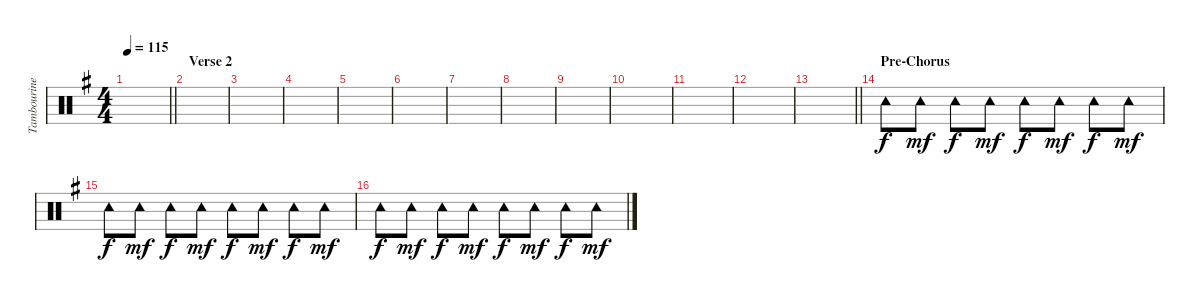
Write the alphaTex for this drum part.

\track ("Tambourine" "Tambourine") {instrument percussion}
\staff {score}
\articulation defaults
\ts (4 4)
\tempo 115
\clef neutral
\barLineRight lightlight
\ks g
|
\section ("" "Verse 2")
|
|
|
|
|
|
|
|
|
|
|
\barLineRight lightlight
|
\section ("" "Pre-Chorus")
"Tambourine (hit)".8 "Tambourine (hit)".8{dy mf} "Tambourine (hit)".8{dy f} "Tambourine (hit)".8{dy mf} "Tambourine (hit)".8{dy f} "Tambourine (hit)".8{dy mf} "Tambourine (hit)".8{dy f} "Tambourine (hit)".8{dy mf} |
"Tambourine (hit)".8{dy f} "Tambourine (hit)".8{dy mf} "Tambourine (hit)".8{dy f} "Tambourine (hit)".8{dy mf} "Tambourine (hit)".8{dy f} "Tambourine (hit)".8{dy mf} "Tambourine (hit)".8{dy f} "Tambourine (hit)".8{dy mf} |
"Tambourine (hit)".8{dy f} "Tambourine (hit)".8{dy mf} "Tambourine (hit)".8{dy f} "Tambourine (hit)".8{dy mf} "Tambourine (hit)".8{dy f} "Tambourine (hit)".8{dy mf} "Tambourine (hit)".8{dy f} "Tambourine (hit)".8{dy mf}
